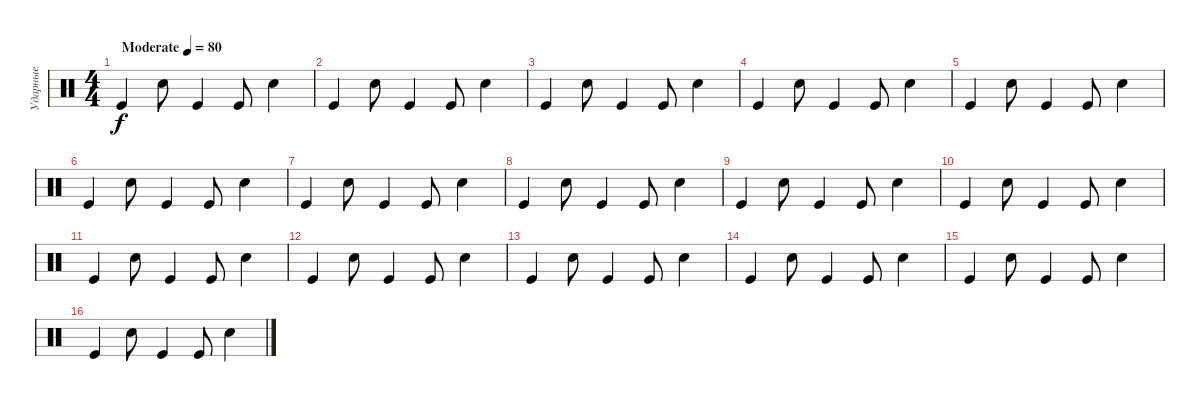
\track ("Ударные" "Ударные") {instrument percussion bank 1}
\staff {score}
\articulation defaults
\ts (4 4)
\tempo (80 "Moderate")
\clef neutral
\ks c "Kick (hit)".4{dy f} "Snare (hit) 2".8 "Kick (hit)".4 "Kick (hit)".8 "Snare (hit) 2".4
|
"Kick (hit)".4 "Snare (hit) 2".8 "Kick (hit)".4 "Kick (hit)".8 "Snare (hit) 2".4 |
"Kick (hit)".4 "Snare (hit) 2".8 "Kick (hit)".4 "Kick (hit)".8 "Snare (hit) 2".4 |
"Kick (hit)".4 "Snare (hit) 2".8 "Kick (hit)".4 "Kick (hit)".8 "Snare (hit) 2".4 |
"Kick (hit)".4 "Snare (hit) 2".8 "Kick (hit)".4 "Kick (hit)".8 "Snare (hit) 2".4 |
"Kick (hit)".4 "Snare (hit) 2".8 "Kick (hit)".4 "Kick (hit)".8 "Snare (hit) 2".4 |
"Kick (hit)".4 "Snare (hit) 2".8 "Kick (hit)".4 "Kick (hit)".8 "Snare (hit) 2".4 |
"Kick (hit)".4 "Snare (hit) 2".8 "Kick (hit)".4 "Kick (hit)".8 "Snare (hit) 2".4 |
"Kick (hit)".4 "Snare (hit) 2".8 "Kick (hit)".4 "Kick (hit)".8 "Snare (hit) 2".4 |
"Kick (hit)".4 "Snare (hit) 2".8 "Kick (hit)".4 "Kick (hit)".8 "Snare (hit) 2".4 |
"Kick (hit)".4 "Snare (hit) 2".8 "Kick (hit)".4 "Kick (hit)".8 "Snare (hit) 2".4 |
"Kick (hit)".4 "Snare (hit) 2".8 "Kick (hit)".4 "Kick (hit)".8 "Snare (hit) 2".4 |
"Kick (hit)".4 "Snare (hit) 2".8 "Kick (hit)".4 "Kick (hit)".8 "Snare (hit) 2".4 |
"Kick (hit)".4 "Snare (hit) 2".8 "Kick (hit)".4 "Kick (hit)".8 "Snare (hit) 2".4 |
"Kick (hit)".4 "Snare (hit) 2".8 "Kick (hit)".4 "Kick (hit)".8 "Snare (hit) 2".4 |
"Kick (hit)".4 "Snare (hit) 2".8 "Kick (hit)".4 "Kick (hit)".8 "Snare (hit) 2".4
